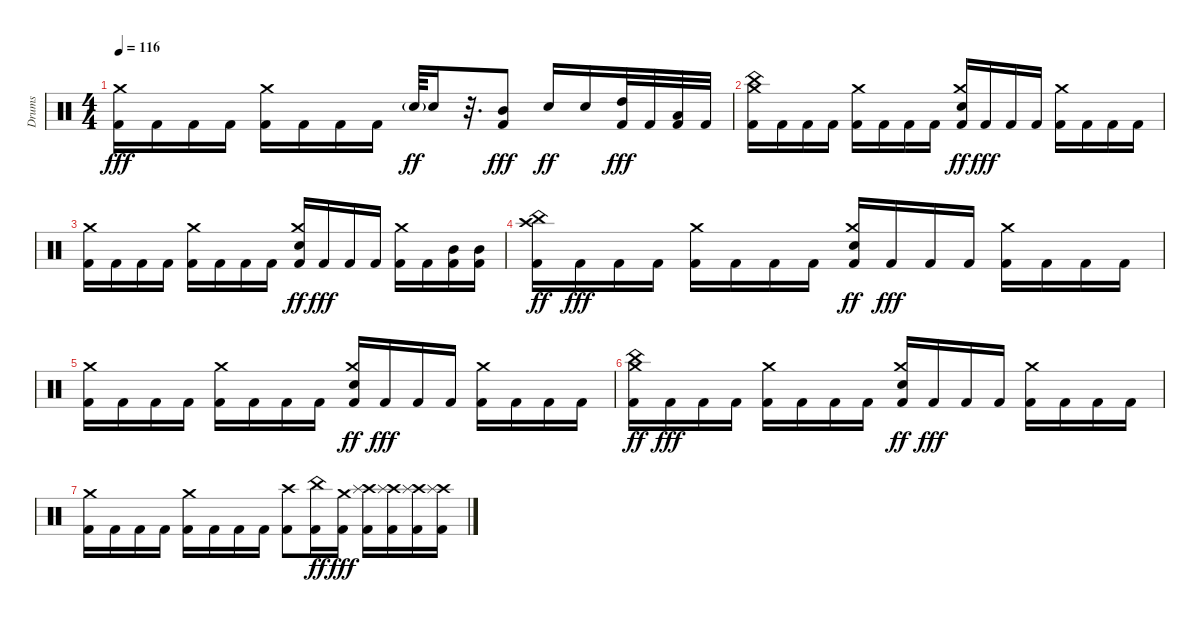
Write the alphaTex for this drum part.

\track ("Drums" "Drums") {instrument percussion}
\staff {score}
\articulation defaults
\ts (4 4)
\tempo 116
\clef neutral
\ks c
("Kick (hit) 2" "Crash medium (hit)").16{dy fff} "Kick (hit) 2".16 "Kick (hit) 2".16 "Kick (hit) 2".16 ("Kick (hit) 2" "Crash medium (hit)").16 "Kick (hit) 2".16 "Kick (hit) 2".16 "Kick (hit) 2".16 "Snare (hit) 2"{g}.64{dy ff} "Snare (hit) 2".16 r.32{d} ("Kick (hit) 2" "Mid Tom (hit)").8{dy fff} "Snare (hit) 2".16{dy ff} "Snare (hit) 2".16 ("Kick (hit) 2" "High Tom (hit)").32{dy fff} "Kick (hit) 2".32 ("Kick (hit) 2" "Low Tom (hit)").32 "Kick (hit) 2".32 |
("Kick (hit) 2" "Crash medium (hit)" "China (hit)").16 "Kick (hit) 2".16 "Kick (hit) 2".16 "Kick (hit) 2".16 ("Kick (hit) 2" "Crash medium (hit)").16 "Kick (hit) 2".16 "Kick (hit) 2".16 "Kick (hit) 2".16 ("Kick (hit) 2" "Snare (hit) 2" "Crash medium (hit)").16{dy ff} "Kick (hit) 2".16{dy fff} "Kick (hit) 2".16 "Kick (hit) 2".16 ("Kick (hit) 2" "Crash medium (hit)").16 "Kick (hit) 2".16 "Kick (hit) 2".16 "Kick (hit) 2".16 |
("Kick (hit) 2" "Crash medium (hit)").16 "Kick (hit) 2".16 "Kick (hit) 2".16 "Kick (hit) 2".16 ("Kick (hit) 2" "Crash medium (hit)").16 "Kick (hit) 2".16 "Kick (hit) 2".16 "Kick (hit) 2".16 ("Kick (hit) 2" "Snare (hit) 2" "Crash medium (hit)").16{dy ff} "Kick (hit) 2".16{dy fff} "Kick (hit) 2".16 "Kick (hit) 2".16 ("Kick (hit) 2" "Crash medium (hit)").16 "Kick (hit) 2".16 ("Kick (hit) 2" "Mid Tom (hit)").16 ("Kick (hit) 2" "Mid Tom (hit)").16 |
("Kick (hit) 2" "Crash high (hit)" "China (hit)").16{dy ff} "Kick (hit) 2".16{dy fff} "Kick (hit) 2".16 "Kick (hit) 2".16 ("Kick (hit) 2" "Crash medium (hit)").16 "Kick (hit) 2".16 "Kick (hit) 2".16 "Kick (hit) 2".16 ("Kick (hit) 2" "Snare (hit) 2" "Crash medium (hit)").16{dy ff} "Kick (hit) 2".16{dy fff} "Kick (hit) 2".16 "Kick (hit) 2".16 ("Kick (hit) 2" "Crash medium (hit)").16 "Kick (hit) 2".16 "Kick (hit) 2".16 "Kick (hit) 2".16 |
("Kick (hit) 2" "Crash medium (hit)").16 "Kick (hit) 2".16 "Kick (hit) 2".16 "Kick (hit) 2".16 ("Kick (hit) 2" "Crash medium (hit)").16 "Kick (hit) 2".16 "Kick (hit) 2".16 "Kick (hit) 2".16 ("Kick (hit) 2" "Snare (hit) 2" "Crash medium (hit)").16{dy ff} "Kick (hit) 2".16{dy fff} "Kick (hit) 2".16 "Kick (hit) 2".16 ("Kick (hit) 2" "Crash medium (hit)").16 "Kick (hit) 2".16 "Kick (hit) 2".16 "Kick (hit) 2".16 |
("Kick (hit) 2" "Crash medium (hit)" "China (hit)").16{dy ff} "Kick (hit) 2".16{dy fff} "Kick (hit) 2".16 "Kick (hit) 2".16 ("Kick (hit) 2" "Crash medium (hit)").16 "Kick (hit) 2".16 "Kick (hit) 2".16 "Kick (hit) 2".16 ("Kick (hit) 2" "Snare (hit) 2" "Crash medium (hit)").16{dy ff} "Kick (hit) 2".16{dy fff} "Kick (hit) 2".16 "Kick (hit) 2".16 ("Kick (hit) 2" "Crash medium (hit)").16 "Kick (hit) 2".16 "Kick (hit) 2".16 "Kick (hit) 2".16 |
("Kick (hit) 2" "Crash medium (hit)").16 "Kick (hit) 2".16 "Kick (hit) 2".16 "Kick (hit) 2".16 ("Kick (hit) 2" "Crash medium (hit)").16 "Kick (hit) 2".16 "Kick (hit) 2".16 "Kick (hit) 2".16 ("Kick (hit) 2" "Crash high (hit)").8 ("Kick (hit) 2" "China (hit)").16{dy ff} ("Kick (hit) 2" "Crash medium (hit)").16{dy fff} ("Kick (hit) 2" "Crash high (hit)" "Splash (hit)").16 ("Kick (hit) 2" "Crash high (hit)" "Splash (hit)").16 ("Kick (hit) 2" "Crash high (hit)" "Splash (hit)").16 ("Kick (hit) 2" "Crash high (hit)" "Splash (hit)").16
